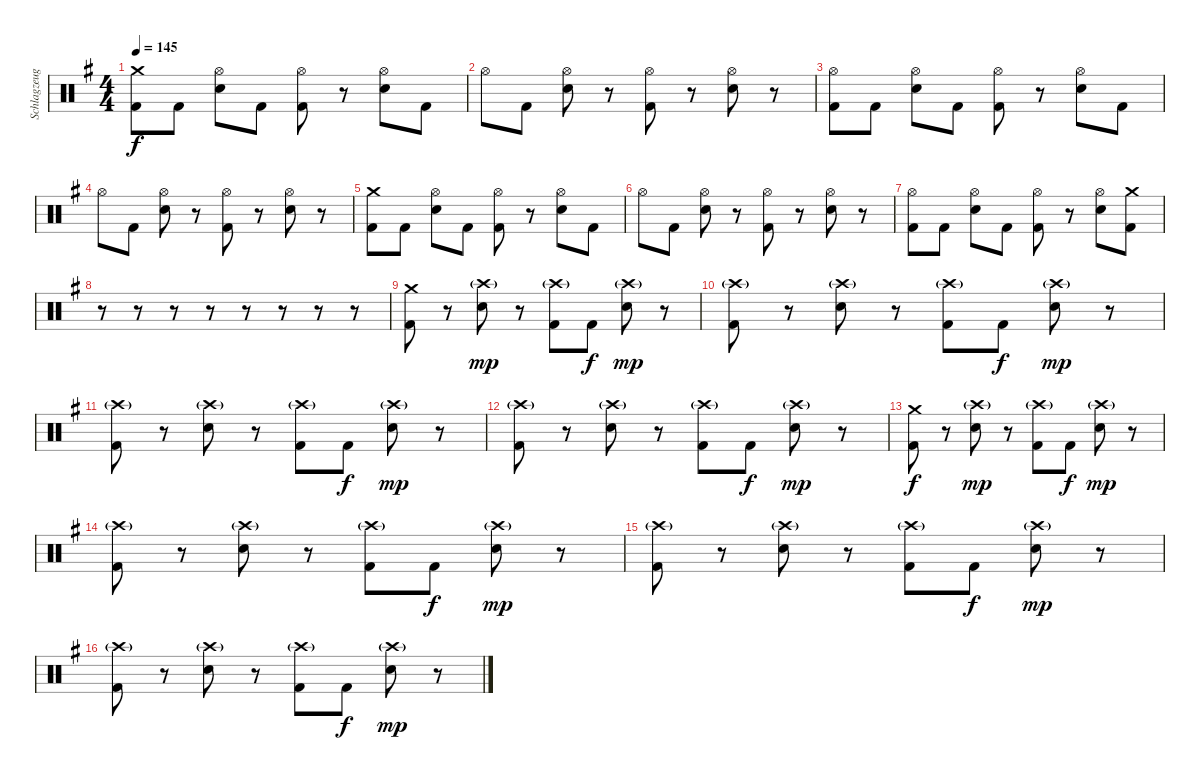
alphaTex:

\track ("Schlagzeug - Bela B. Felsenheimer" "Schlagzeug") {instrument percussion}
\staff {score}
\articulation defaults
\ts (4 4)
\tempo 145
\clef neutral
\ks g
("Crash medium (hit)" "Kick (hit) 2").8{dy f} "Kick (hit) 2".8 ("Hi-Hat (open)" "Snare (hit) 2").8 "Kick (hit) 2".8 ("Hi-Hat (open)" "Kick (hit) 2").8 r.8 ("Hi-Hat (open)" "Snare (hit) 2").8 "Kick (hit) 2".8 |
"Hi-Hat (open)".8 "Kick (hit) 2".8 ("Hi-Hat (open)" "Snare (hit) 2").8 r.8 ("Hi-Hat (open)" "Kick (hit) 2").8 r.8 ("Hi-Hat (open)" "Snare (hit) 2").8 r.8 |
("Hi-Hat (open)" "Kick (hit) 2").8 "Kick (hit) 2".8 ("Hi-Hat (open)" "Snare (hit) 2").8 "Kick (hit) 2".8 ("Hi-Hat (open)" "Kick (hit) 2").8 r.8 ("Hi-Hat (open)" "Snare (hit) 2").8 "Kick (hit) 2".8 |
"Hi-Hat (open)".8 "Kick (hit) 2".8 ("Hi-Hat (open)" "Snare (hit) 2").8 r.8 ("Hi-Hat (open)" "Kick (hit) 2").8 r.8 ("Hi-Hat (open)" "Snare (hit) 2").8 r.8 |
("Crash medium (hit)" "Kick (hit) 2").8 "Kick (hit) 2".8 ("Hi-Hat (open)" "Snare (hit) 2").8 "Kick (hit) 2".8 ("Hi-Hat (open)" "Kick (hit) 2").8 r.8 ("Hi-Hat (open)" "Snare (hit) 2").8 "Kick (hit) 2".8 |
"Hi-Hat (open)".8 "Kick (hit) 2".8 ("Hi-Hat (open)" "Snare (hit) 2").8 r.8 ("Hi-Hat (open)" "Kick (hit) 2").8 r.8 ("Hi-Hat (open)" "Snare (hit) 2").8 r.8 |
("Hi-Hat (open)" "Kick (hit) 2").8 "Kick (hit) 2".8 ("Hi-Hat (open)" "Snare (hit) 2").8 "Kick (hit) 2".8 ("Hi-Hat (open)" "Kick (hit) 2").8 r.8 ("Hi-Hat (open)" "Snare (hit) 2").8 ("Crash medium (hit)" "Kick (hit) 2").8 |
r.8 r.8 r.8 r.8 r.8 r.8 r.8 r.8 |
("Crash medium (hit)" "Kick (hit) 2").8 r.8 ("Crash high (hit)"{g} "Snare (hit) 2").8{dy mp} r.8 ("Crash high (hit)"{g} "Kick (hit) 2").8 "Kick (hit) 2".8{dy f} ("Crash high (hit)"{g} "Snare (hit) 2").8{dy mp} r.8 |
("Crash high (hit)"{g} "Kick (hit) 2").8 r.8 ("Crash high (hit)"{g} "Snare (hit) 2").8 r.8 ("Crash high (hit)"{g} "Kick (hit) 2").8 "Kick (hit) 2".8{dy f} ("Crash high (hit)"{g} "Snare (hit) 2").8{dy mp} r.8 |
("Crash high (hit)"{g} "Kick (hit) 2").8 r.8 ("Crash high (hit)"{g} "Snare (hit) 2").8 r.8 ("Crash high (hit)"{g} "Kick (hit) 2").8 "Kick (hit) 2".8{dy f} ("Crash high (hit)"{g} "Snare (hit) 2").8{dy mp} r.8 |
("Crash high (hit)"{g} "Kick (hit) 2").8 r.8 ("Crash high (hit)"{g} "Snare (hit) 2").8 r.8 ("Crash high (hit)"{g} "Kick (hit) 2").8 "Kick (hit) 2".8{dy f} ("Crash high (hit)"{g} "Snare (hit) 2").8{dy mp} r.8 |
("Crash medium (hit)" "Kick (hit) 2").8{dy f} r.8 ("Crash high (hit)"{g} "Snare (hit) 2").8{dy mp} r.8 ("Crash high (hit)"{g} "Kick (hit) 2").8 "Kick (hit) 2".8{dy f} ("Crash high (hit)"{g} "Snare (hit) 2").8{dy mp} r.8 |
("Crash high (hit)"{g} "Kick (hit) 2").8 r.8 ("Crash high (hit)"{g} "Snare (hit) 2").8 r.8 ("Crash high (hit)"{g} "Kick (hit) 2").8 "Kick (hit) 2".8{dy f} ("Crash high (hit)"{g} "Snare (hit) 2").8{dy mp} r.8 |
("Crash high (hit)"{g} "Kick (hit) 2").8 r.8 ("Crash high (hit)"{g} "Snare (hit) 2").8 r.8 ("Crash high (hit)"{g} "Kick (hit) 2").8 "Kick (hit) 2".8{dy f} ("Crash high (hit)"{g} "Snare (hit) 2").8{dy mp} r.8 |
("Crash high (hit)"{g} "Kick (hit) 2").8 r.8 ("Crash high (hit)"{g} "Snare (hit) 2").8 r.8 ("Crash high (hit)"{g} "Kick (hit) 2").8 "Kick (hit) 2".8{dy f} ("Crash high (hit)"{g} "Snare (hit) 2").8{dy mp} r.8
